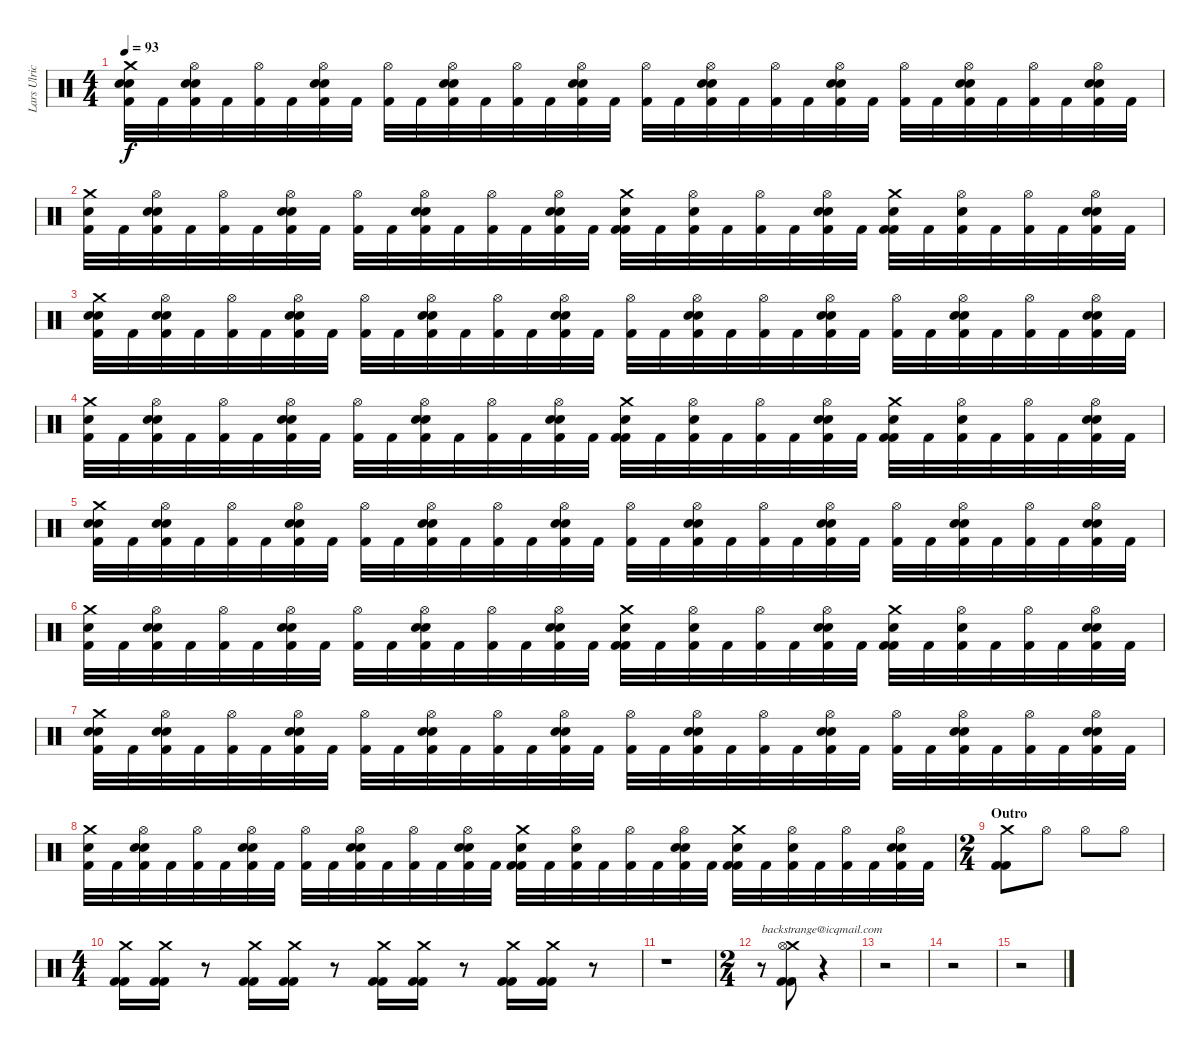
\track ("Lars Ulrich" "Lars Ulric") {instrument percussion}
\staff {score}
\articulation defaults
\ts (4 4)
\tempo 93
\clef neutral
\ks c
("Crash medium (hit)" "Snare (hit) 2" "Snare (hit) 2" "Kick (hit) 2").32{dy f} "Kick (hit) 2".32 ("Hi-Hat (open)" "Electric Snare (hit)" "Snare (hit) 2" "Kick (hit) 2").32 "Kick (hit) 2".32 ("Hi-Hat (open)" "Kick (hit) 2").32 "Kick (hit) 2".32 ("Hi-Hat (open)" "Electric Snare (hit)" "Snare (hit) 2" "Kick (hit) 2").32 "Kick (hit) 2".32 ("Hi-Hat (open)" "Kick (hit) 2").32 "Kick (hit) 2".32 ("Hi-Hat (open)" "Electric Snare (hit)" "Snare (hit) 2" "Kick (hit) 2").32 "Kick (hit) 2".32 ("Hi-Hat (open)" "Kick (hit) 2").32 "Kick (hit) 2".32 ("Hi-Hat (open)" "Electric Snare (hit)" "Snare (hit) 2" "Kick (hit) 2").32 "Kick (hit) 2".32 ("Hi-Hat (open)" "Kick (hit) 2").32 "Kick (hit) 2".32 ("Hi-Hat (open)" "Electric Snare (hit)" "Snare (hit) 2" "Kick (hit) 2").32 "Kick (hit) 2".32 ("Hi-Hat (open)" "Kick (hit) 2").32 "Kick (hit) 2".32 ("Hi-Hat (open)" "Electric Snare (hit)" "Snare (hit) 2" "Kick (hit) 2").32 "Kick (hit) 2".32 ("Hi-Hat (open)" "Kick (hit) 2").32 "Kick (hit) 2".32 ("Hi-Hat (open)" "Electric Snare (hit)" "Snare (hit) 2" "Kick (hit) 2").32 "Kick (hit) 2".32 ("Hi-Hat (open)" "Kick (hit) 2").32 "Kick (hit) 2".32 ("Hi-Hat (open)" "Electric Snare (hit)" "Snare (hit) 2" "Kick (hit) 2").32 "Kick (hit) 2".32 |
("Crash medium (hit)" "Snare (hit) 2" "Kick (hit) 2").32 "Kick (hit) 2".32 ("Hi-Hat (open)" "Electric Snare (hit)" "Snare (hit) 2" "Kick (hit) 2").32 "Kick (hit) 2".32 ("Hi-Hat (open)" "Kick (hit) 2").32 "Kick (hit) 2".32 ("Hi-Hat (open)" "Electric Snare (hit)" "Snare (hit) 2" "Kick (hit) 2").32 "Kick (hit) 2".32 ("Hi-Hat (open)" "Kick (hit) 2").32 "Kick (hit) 2".32 ("Hi-Hat (open)" "Electric Snare (hit)" "Snare (hit) 2" "Kick (hit) 2").32 "Kick (hit) 2".32 ("Hi-Hat (open)" "Kick (hit) 2").32 "Kick (hit) 2".32 ("Hi-Hat (open)" "Electric Snare (hit)" "Snare (hit) 2" "Kick (hit) 2").32 "Kick (hit) 2".32 ("Crash medium (hit)" "Snare (hit) 2" "Kick (hit) 2" "Kick (hit) 2").32 "Kick (hit) 2".32 ("Hi-Hat (open)" "Electric Snare (hit)" "Kick (hit) 2").32 "Kick (hit) 2".32 ("Hi-Hat (open)" "Kick (hit) 2").32 "Kick (hit) 2".32 ("Hi-Hat (open)" "Electric Snare (hit)" "Snare (hit) 2" "Kick (hit) 2").32 "Kick (hit) 2".32 ("Crash medium (hit)" "Snare (hit) 2" "Kick (hit) 2" "Kick (hit) 2").32 "Kick (hit) 2".32 ("Hi-Hat (open)" "Electric Snare (hit)" "Kick (hit) 2").32 "Kick (hit) 2".32 ("Hi-Hat (open)" "Kick (hit) 2").32 "Kick (hit) 2".32 ("Hi-Hat (open)" "Electric Snare (hit)" "Snare (hit) 2" "Kick (hit) 2").32 "Kick (hit) 2".32 |
("Crash medium (hit)" "Snare (hit) 2" "Snare (hit) 2" "Kick (hit) 2").32 "Kick (hit) 2".32 ("Hi-Hat (open)" "Electric Snare (hit)" "Snare (hit) 2" "Kick (hit) 2").32 "Kick (hit) 2".32 ("Hi-Hat (open)" "Kick (hit) 2").32 "Kick (hit) 2".32 ("Hi-Hat (open)" "Electric Snare (hit)" "Snare (hit) 2" "Kick (hit) 2").32 "Kick (hit) 2".32 ("Hi-Hat (open)" "Kick (hit) 2").32 "Kick (hit) 2".32 ("Hi-Hat (open)" "Electric Snare (hit)" "Snare (hit) 2" "Kick (hit) 2").32 "Kick (hit) 2".32 ("Hi-Hat (open)" "Kick (hit) 2").32 "Kick (hit) 2".32 ("Hi-Hat (open)" "Electric Snare (hit)" "Snare (hit) 2" "Kick (hit) 2").32 "Kick (hit) 2".32 ("Hi-Hat (open)" "Kick (hit) 2").32 "Kick (hit) 2".32 ("Hi-Hat (open)" "Electric Snare (hit)" "Snare (hit) 2" "Kick (hit) 2").32 "Kick (hit) 2".32 ("Hi-Hat (open)" "Kick (hit) 2").32 "Kick (hit) 2".32 ("Hi-Hat (open)" "Electric Snare (hit)" "Snare (hit) 2" "Kick (hit) 2").32 "Kick (hit) 2".32 ("Hi-Hat (open)" "Kick (hit) 2").32 "Kick (hit) 2".32 ("Hi-Hat (open)" "Electric Snare (hit)" "Snare (hit) 2" "Kick (hit) 2").32 "Kick (hit) 2".32 ("Hi-Hat (open)" "Kick (hit) 2").32 "Kick (hit) 2".32 ("Hi-Hat (open)" "Electric Snare (hit)" "Snare (hit) 2" "Kick (hit) 2").32 "Kick (hit) 2".32 |
("Crash medium (hit)" "Snare (hit) 2" "Kick (hit) 2").32 "Kick (hit) 2".32 ("Hi-Hat (open)" "Electric Snare (hit)" "Snare (hit) 2" "Kick (hit) 2").32 "Kick (hit) 2".32 ("Hi-Hat (open)" "Kick (hit) 2").32 "Kick (hit) 2".32 ("Hi-Hat (open)" "Electric Snare (hit)" "Snare (hit) 2" "Kick (hit) 2").32 "Kick (hit) 2".32 ("Hi-Hat (open)" "Kick (hit) 2").32 "Kick (hit) 2".32 ("Hi-Hat (open)" "Electric Snare (hit)" "Snare (hit) 2" "Kick (hit) 2").32 "Kick (hit) 2".32 ("Hi-Hat (open)" "Kick (hit) 2").32 "Kick (hit) 2".32 ("Hi-Hat (open)" "Electric Snare (hit)" "Snare (hit) 2" "Kick (hit) 2").32 "Kick (hit) 2".32 ("Crash medium (hit)" "Snare (hit) 2" "Kick (hit) 2" "Kick (hit) 2").32 "Kick (hit) 2".32 ("Hi-Hat (open)" "Electric Snare (hit)" "Kick (hit) 2").32 "Kick (hit) 2".32 ("Hi-Hat (open)" "Kick (hit) 2").32 "Kick (hit) 2".32 ("Hi-Hat (open)" "Electric Snare (hit)" "Snare (hit) 2" "Kick (hit) 2").32 "Kick (hit) 2".32 ("Crash medium (hit)" "Snare (hit) 2" "Kick (hit) 2" "Kick (hit) 2").32 "Kick (hit) 2".32 ("Hi-Hat (open)" "Electric Snare (hit)" "Kick (hit) 2").32 "Kick (hit) 2".32 ("Hi-Hat (open)" "Kick (hit) 2").32 "Kick (hit) 2".32 ("Hi-Hat (open)" "Electric Snare (hit)" "Snare (hit) 2" "Kick (hit) 2").32 "Kick (hit) 2".32 |
("Crash medium (hit)" "Snare (hit) 2" "Snare (hit) 2" "Kick (hit) 2").32 "Kick (hit) 2".32 ("Hi-Hat (open)" "Electric Snare (hit)" "Snare (hit) 2" "Kick (hit) 2").32 "Kick (hit) 2".32 ("Hi-Hat (open)" "Kick (hit) 2").32 "Kick (hit) 2".32 ("Hi-Hat (open)" "Electric Snare (hit)" "Snare (hit) 2" "Kick (hit) 2").32 "Kick (hit) 2".32 ("Hi-Hat (open)" "Kick (hit) 2").32 "Kick (hit) 2".32 ("Hi-Hat (open)" "Electric Snare (hit)" "Snare (hit) 2" "Kick (hit) 2").32 "Kick (hit) 2".32 ("Hi-Hat (open)" "Kick (hit) 2").32 "Kick (hit) 2".32 ("Hi-Hat (open)" "Electric Snare (hit)" "Snare (hit) 2" "Kick (hit) 2").32 "Kick (hit) 2".32 ("Hi-Hat (open)" "Kick (hit) 2").32 "Kick (hit) 2".32 ("Hi-Hat (open)" "Electric Snare (hit)" "Snare (hit) 2" "Kick (hit) 2").32 "Kick (hit) 2".32 ("Hi-Hat (open)" "Kick (hit) 2").32 "Kick (hit) 2".32 ("Hi-Hat (open)" "Electric Snare (hit)" "Snare (hit) 2" "Kick (hit) 2").32 "Kick (hit) 2".32 ("Hi-Hat (open)" "Kick (hit) 2").32 "Kick (hit) 2".32 ("Hi-Hat (open)" "Electric Snare (hit)" "Snare (hit) 2" "Kick (hit) 2").32 "Kick (hit) 2".32 ("Hi-Hat (open)" "Kick (hit) 2").32 "Kick (hit) 2".32 ("Hi-Hat (open)" "Electric Snare (hit)" "Snare (hit) 2" "Kick (hit) 2").32 "Kick (hit) 2".32 |
("Crash medium (hit)" "Snare (hit) 2" "Kick (hit) 2").32 "Kick (hit) 2".32 ("Hi-Hat (open)" "Electric Snare (hit)" "Snare (hit) 2" "Kick (hit) 2").32 "Kick (hit) 2".32 ("Hi-Hat (open)" "Kick (hit) 2").32 "Kick (hit) 2".32 ("Hi-Hat (open)" "Electric Snare (hit)" "Snare (hit) 2" "Kick (hit) 2").32 "Kick (hit) 2".32 ("Hi-Hat (open)" "Kick (hit) 2").32 "Kick (hit) 2".32 ("Hi-Hat (open)" "Electric Snare (hit)" "Snare (hit) 2" "Kick (hit) 2").32 "Kick (hit) 2".32 ("Hi-Hat (open)" "Kick (hit) 2").32 "Kick (hit) 2".32 ("Hi-Hat (open)" "Electric Snare (hit)" "Snare (hit) 2" "Kick (hit) 2").32 "Kick (hit) 2".32 ("Crash medium (hit)" "Snare (hit) 2" "Kick (hit) 2" "Kick (hit) 2").32 "Kick (hit) 2".32 ("Hi-Hat (open)" "Electric Snare (hit)" "Kick (hit) 2").32 "Kick (hit) 2".32 ("Hi-Hat (open)" "Kick (hit) 2").32 "Kick (hit) 2".32 ("Hi-Hat (open)" "Electric Snare (hit)" "Snare (hit) 2" "Kick (hit) 2").32 "Kick (hit) 2".32 ("Crash medium (hit)" "Snare (hit) 2" "Kick (hit) 2" "Kick (hit) 2").32 "Kick (hit) 2".32 ("Hi-Hat (open)" "Electric Snare (hit)" "Kick (hit) 2").32 "Kick (hit) 2".32 ("Hi-Hat (open)" "Kick (hit) 2").32 "Kick (hit) 2".32 ("Hi-Hat (open)" "Electric Snare (hit)" "Snare (hit) 2" "Kick (hit) 2").32 "Kick (hit) 2".32 |
("Crash medium (hit)" "Snare (hit) 2" "Snare (hit) 2" "Kick (hit) 2").32 "Kick (hit) 2".32 ("Hi-Hat (open)" "Electric Snare (hit)" "Snare (hit) 2" "Kick (hit) 2").32 "Kick (hit) 2".32 ("Hi-Hat (open)" "Kick (hit) 2").32 "Kick (hit) 2".32 ("Hi-Hat (open)" "Electric Snare (hit)" "Snare (hit) 2" "Kick (hit) 2").32 "Kick (hit) 2".32 ("Hi-Hat (open)" "Kick (hit) 2").32 "Kick (hit) 2".32 ("Hi-Hat (open)" "Electric Snare (hit)" "Snare (hit) 2" "Kick (hit) 2").32 "Kick (hit) 2".32 ("Hi-Hat (open)" "Kick (hit) 2").32 "Kick (hit) 2".32 ("Hi-Hat (open)" "Electric Snare (hit)" "Snare (hit) 2" "Kick (hit) 2").32 "Kick (hit) 2".32 ("Hi-Hat (open)" "Kick (hit) 2").32 "Kick (hit) 2".32 ("Hi-Hat (open)" "Electric Snare (hit)" "Snare (hit) 2" "Kick (hit) 2").32 "Kick (hit) 2".32 ("Hi-Hat (open)" "Kick (hit) 2").32 "Kick (hit) 2".32 ("Hi-Hat (open)" "Electric Snare (hit)" "Snare (hit) 2" "Kick (hit) 2").32 "Kick (hit) 2".32 ("Hi-Hat (open)" "Kick (hit) 2").32 "Kick (hit) 2".32 ("Hi-Hat (open)" "Electric Snare (hit)" "Snare (hit) 2" "Kick (hit) 2").32 "Kick (hit) 2".32 ("Hi-Hat (open)" "Kick (hit) 2").32 "Kick (hit) 2".32 ("Hi-Hat (open)" "Electric Snare (hit)" "Snare (hit) 2" "Kick (hit) 2").32 "Kick (hit) 2".32 |
("Crash medium (hit)" "Snare (hit) 2" "Kick (hit) 2").32 "Kick (hit) 2".32 ("Hi-Hat (open)" "Electric Snare (hit)" "Snare (hit) 2" "Kick (hit) 2").32 "Kick (hit) 2".32 ("Hi-Hat (open)" "Kick (hit) 2").32 "Kick (hit) 2".32 ("Hi-Hat (open)" "Electric Snare (hit)" "Snare (hit) 2" "Kick (hit) 2").32 "Kick (hit) 2".32 ("Hi-Hat (open)" "Kick (hit) 2").32 "Kick (hit) 2".32 ("Hi-Hat (open)" "Electric Snare (hit)" "Snare (hit) 2" "Kick (hit) 2").32 "Kick (hit) 2".32 ("Hi-Hat (open)" "Kick (hit) 2").32 "Kick (hit) 2".32 ("Hi-Hat (open)" "Electric Snare (hit)" "Snare (hit) 2" "Kick (hit) 2").32 "Kick (hit) 2".32 ("Crash medium (hit)" "Snare (hit) 2" "Kick (hit) 2" "Kick (hit) 2").32 "Kick (hit) 2".32 ("Hi-Hat (open)" "Electric Snare (hit)" "Kick (hit) 2").32 "Kick (hit) 2".32 ("Hi-Hat (open)" "Kick (hit) 2").32 "Kick (hit) 2".32 ("Hi-Hat (open)" "Electric Snare (hit)" "Snare (hit) 2" "Kick (hit) 2").32 "Kick (hit) 2".32 ("Crash medium (hit)" "Snare (hit) 2" "Kick (hit) 2" "Kick (hit) 2").32 "Kick (hit) 2".32 ("Hi-Hat (open)" "Electric Snare (hit)" "Kick (hit) 2").32 "Kick (hit) 2".32 ("Hi-Hat (open)" "Kick (hit) 2").32 "Kick (hit) 2".32 ("Hi-Hat (open)" "Electric Snare (hit)" "Snare (hit) 2" "Kick (hit) 2").32 "Kick (hit) 2".32 |
\ts (2 4)
\section ("" "Outro")
("Crash medium (hit)" "Kick (hit) 2" "Kick (hit) 2").8 "Hi-Hat (open)".8 "Hi-Hat (open)".8 "Hi-Hat (open)".8 |
\ts (4 4)
("Crash medium (hit)" "Kick (hit) 2" "Kick (hit) 2").16 ("Crash medium (hit)" "Kick (hit) 2" "Kick (hit) 2").16 r.8 ("Crash medium (hit)" "Kick (hit) 2" "Kick (hit) 2").16 ("Crash medium (hit)" "Kick (hit) 2" "Kick (hit) 2").16 r.8 ("Crash medium (hit)" "Kick (hit) 2" "Kick (hit) 2").16 ("Crash medium (hit)" "Kick (hit) 2" "Kick (hit) 2").16 r.8 ("Crash medium (hit)" "Kick (hit) 2" "Kick (hit) 2").16 ("Crash medium (hit)" "Kick (hit) 2" "Kick (hit) 2").16 r.8 |
r.1 |
\ts (2 4)
r.8{txt "backstrange@icqmail.com"} ("Crash medium (hit)" "Hi-Hat (open)" "Kick (hit) 2" "Kick (hit) 2").8 r.4 |
r.2 |
r.2 |
r.2
